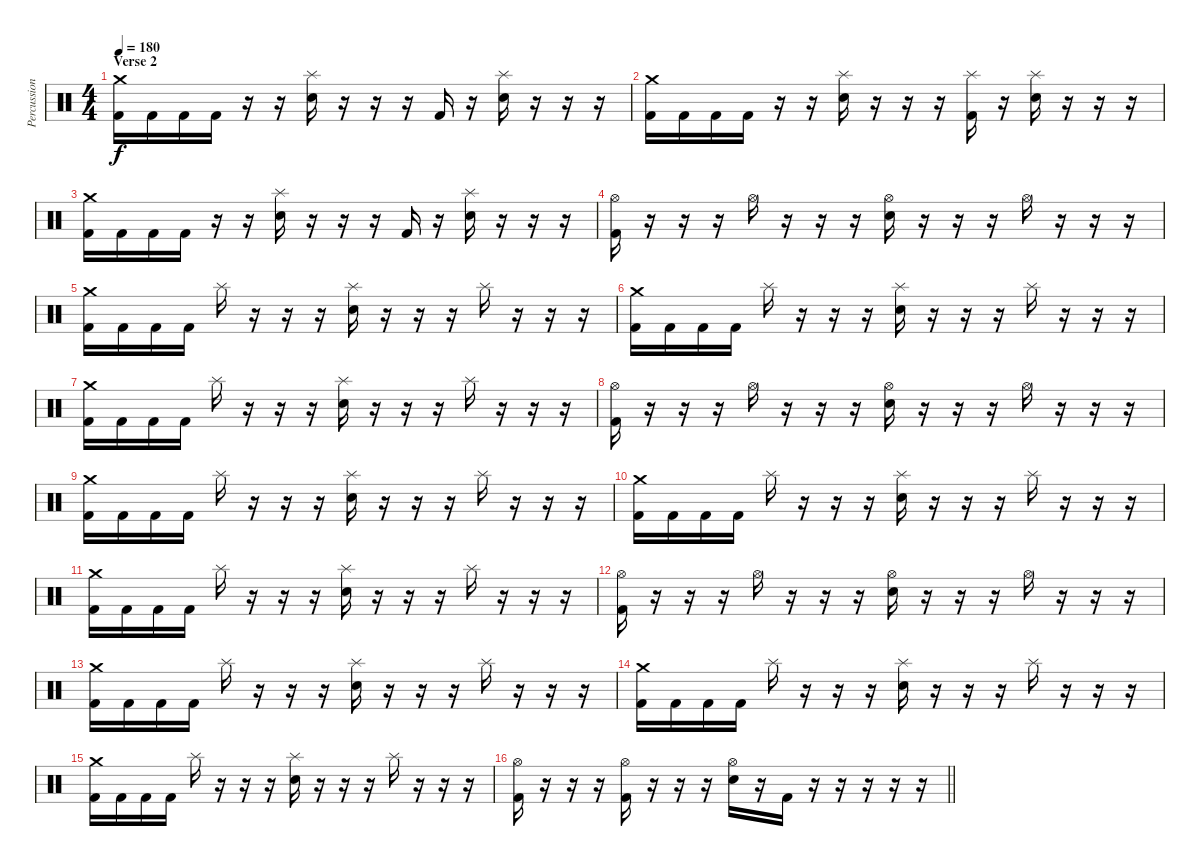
\track ("Percussion" "Percussion") {instrument percussion}
\staff {score}
\articulation defaults
\ts (4 4)
\section ("" "Verse 2")
\tempo 180
\clef neutral
\ks c
("Crash medium (hit)" "Kick (hit) 2").16{dy f} "Kick (hit) 2".16 "Kick (hit) 2".16 "Kick (hit) 2".16 r.16 r.16 ("Splash (hit)" "Electric Snare (hit)").16 r.16 r.16 r.16 "Kick (hit) 2".16 r.16 ("Splash (hit)" "Electric Snare (hit)").16 r.16 r.16 r.16 |
("Crash medium (hit)" "Kick (hit) 2").16 "Kick (hit) 2".16 "Kick (hit) 2".16 "Kick (hit) 2".16 r.16 r.16 ("Splash (hit)" "Electric Snare (hit)").16 r.16 r.16 r.16 ("Splash (hit)" "Kick (hit) 2").16 r.16 ("Splash (hit)" "Electric Snare (hit)").16 r.16 r.16 r.16 |
("Crash medium (hit)" "Kick (hit) 2").16 "Kick (hit) 2".16 "Kick (hit) 2".16 "Kick (hit) 2".16 r.16 r.16 ("Splash (hit)" "Electric Snare (hit)").16 r.16 r.16 r.16 "Kick (hit) 2".16 r.16 ("Splash (hit)" "Electric Snare (hit)").16 r.16 r.16 r.16 |
("Hi-Hat (open)" "Kick (hit) 2").16 r.16 r.16 r.16 "Hi-Hat (open)".16 r.16 r.16 r.16 ("Hi-Hat (open)" "Electric Snare (hit)").16 r.16 r.16 r.16 "Hi-Hat (open)".16 r.16 r.16 r.16 |
("Crash medium (hit)" "Kick (hit) 2").16 "Kick (hit) 2".16 "Kick (hit) 2".16 "Kick (hit) 2".16 "Splash (hit)".16 r.16 r.16 r.16 ("Splash (hit)" "Electric Snare (hit)").16 r.16 r.16 r.16 "Splash (hit)".16 r.16 r.16 r.16 |
("Crash medium (hit)" "Kick (hit) 2").16 "Kick (hit) 2".16 "Kick (hit) 2".16 "Kick (hit) 2".16 "Splash (hit)".16 r.16 r.16 r.16 ("Splash (hit)" "Electric Snare (hit)").16 r.16 r.16 r.16 "Splash (hit)".16 r.16 r.16 r.16 |
("Crash medium (hit)" "Kick (hit) 2").16 "Kick (hit) 2".16 "Kick (hit) 2".16 "Kick (hit) 2".16 "Splash (hit)".16 r.16 r.16 r.16 ("Splash (hit)" "Electric Snare (hit)").16 r.16 r.16 r.16 "Splash (hit)".16 r.16 r.16 r.16 |
("Hi-Hat (open)" "Kick (hit) 2").16 r.16 r.16 r.16 "Hi-Hat (open)".16 r.16 r.16 r.16 ("Hi-Hat (open)" "Electric Snare (hit)").16 r.16 r.16 r.16 "Hi-Hat (open)".16 r.16 r.16 r.16 |
("Crash medium (hit)" "Kick (hit) 2").16 "Kick (hit) 2".16 "Kick (hit) 2".16 "Kick (hit) 2".16 "Splash (hit)".16 r.16 r.16 r.16 ("Splash (hit)" "Electric Snare (hit)").16 r.16 r.16 r.16 "Splash (hit)".16 r.16 r.16 r.16 |
("Crash medium (hit)" "Kick (hit) 2").16 "Kick (hit) 2".16 "Kick (hit) 2".16 "Kick (hit) 2".16 "Splash (hit)".16 r.16 r.16 r.16 ("Splash (hit)" "Electric Snare (hit)").16 r.16 r.16 r.16 "Splash (hit)".16 r.16 r.16 r.16 |
("Crash medium (hit)" "Kick (hit) 2").16 "Kick (hit) 2".16 "Kick (hit) 2".16 "Kick (hit) 2".16 "Splash (hit)".16 r.16 r.16 r.16 ("Splash (hit)" "Electric Snare (hit)").16 r.16 r.16 r.16 "Splash (hit)".16 r.16 r.16 r.16 |
("Hi-Hat (open)" "Kick (hit) 2").16 r.16 r.16 r.16 "Hi-Hat (open)".16 r.16 r.16 r.16 ("Hi-Hat (open)" "Electric Snare (hit)").16 r.16 r.16 r.16 "Hi-Hat (open)".16 r.16 r.16 r.16 |
("Crash medium (hit)" "Kick (hit) 2").16 "Kick (hit) 2".16 "Kick (hit) 2".16 "Kick (hit) 2".16 "Splash (hit)".16 r.16 r.16 r.16 ("Splash (hit)" "Electric Snare (hit)").16 r.16 r.16 r.16 "Splash (hit)".16 r.16 r.16 r.16 |
("Crash medium (hit)" "Kick (hit) 2").16 "Kick (hit) 2".16 "Kick (hit) 2".16 "Kick (hit) 2".16 "Splash (hit)".16 r.16 r.16 r.16 ("Splash (hit)" "Electric Snare (hit)").16 r.16 r.16 r.16 "Splash (hit)".16 r.16 r.16 r.16 |
("Crash medium (hit)" "Kick (hit) 2").16 "Kick (hit) 2".16 "Kick (hit) 2".16 "Kick (hit) 2".16 "Splash (hit)".16 r.16 r.16 r.16 ("Splash (hit)" "Electric Snare (hit)").16 r.16 r.16 r.16 "Splash (hit)".16 r.16 r.16 r.16 |
\barLineRight lightlight
("Hi-Hat (open)" "Kick (hit) 2").16 r.16 r.16 r.16 ("Hi-Hat (open)" "Kick (hit) 2").16 r.16 r.16 r.16 ("Hi-Hat (open)" "Electric Snare (hit)").16 r.16 "Kick (hit) 2".16 r.16 r.16 r.16 r.16 r.16
